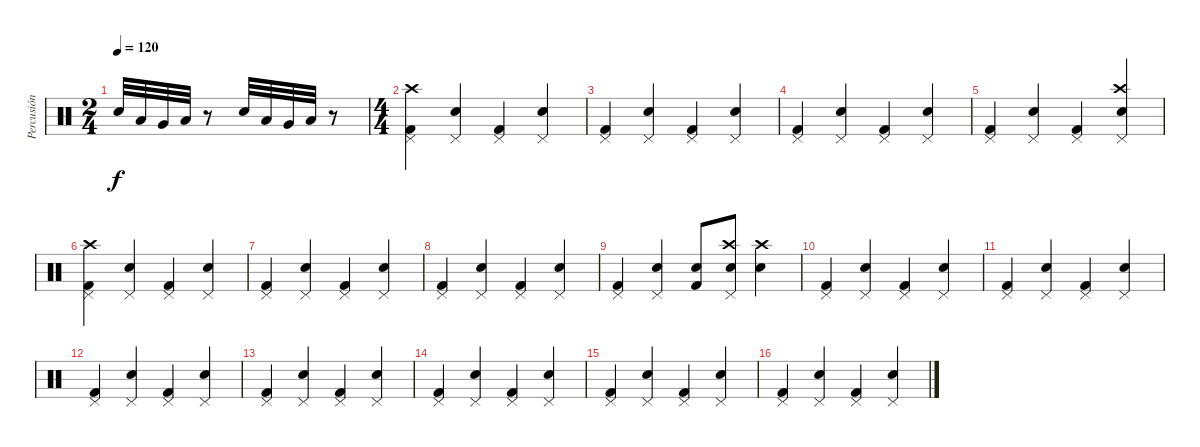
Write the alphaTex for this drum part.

\track ("Percusión" "Percusión") {instrument percussion}
\staff {score}
\articulation defaults
\ts (2 4)
\tempo 120
\clef neutral
\ks c "Electric Snare (hit)".32{dy f} "Low Tom (hit)".32 "Very Low Tom (hit)".32 "Low Floor Tom (hit)".32
r.8 "Electric Snare (hit)".32 "Low Tom (hit)".32 "Very Low Tom (hit)".32 "Low Floor Tom (hit)".32 r.8 |
\ts (4 4)
("Crash high (hit)" "Pedal Hi-Hat (hit)" "Kick (hit) 2").4 ("Pedal Hi-Hat (hit)" "Electric Snare (hit)").4 ("Pedal Hi-Hat (hit)" "Kick (hit) 2").4 ("Pedal Hi-Hat (hit)" "Electric Snare (hit)").4 |
("Pedal Hi-Hat (hit)" "Kick (hit) 2").4 ("Pedal Hi-Hat (hit)" "Electric Snare (hit)").4 ("Pedal Hi-Hat (hit)" "Kick (hit) 2").4 ("Pedal Hi-Hat (hit)" "Electric Snare (hit)").4 |
("Pedal Hi-Hat (hit)" "Kick (hit) 2").4 ("Pedal Hi-Hat (hit)" "Electric Snare (hit)").4 ("Pedal Hi-Hat (hit)" "Kick (hit) 2").4 ("Pedal Hi-Hat (hit)" "Electric Snare (hit)").4 |
("Pedal Hi-Hat (hit)" "Kick (hit) 2").4 ("Pedal Hi-Hat (hit)" "Electric Snare (hit)").4 ("Pedal Hi-Hat (hit)" "Kick (hit) 2").4 ("Crash high (hit)" "Pedal Hi-Hat (hit)" "Electric Snare (hit)").4 |
("Crash high (hit)" "Pedal Hi-Hat (hit)" "Kick (hit) 2").4 ("Pedal Hi-Hat (hit)" "Electric Snare (hit)").4 ("Pedal Hi-Hat (hit)" "Kick (hit) 2").4 ("Pedal Hi-Hat (hit)" "Electric Snare (hit)").4 |
("Pedal Hi-Hat (hit)" "Kick (hit) 2").4 ("Pedal Hi-Hat (hit)" "Electric Snare (hit)").4 ("Pedal Hi-Hat (hit)" "Kick (hit) 2").4 ("Pedal Hi-Hat (hit)" "Electric Snare (hit)").4 |
("Pedal Hi-Hat (hit)" "Kick (hit) 2").4 ("Pedal Hi-Hat (hit)" "Electric Snare (hit)").4 ("Pedal Hi-Hat (hit)" "Kick (hit) 2").4 ("Pedal Hi-Hat (hit)" "Electric Snare (hit)").4 |
("Pedal Hi-Hat (hit)" "Kick (hit) 2").4 ("Pedal Hi-Hat (hit)" "Electric Snare (hit)").4 ("Electric Snare (hit)" "Kick (hit) 2").8 ("Crash high (hit)" "Pedal Hi-Hat (hit)" "Electric Snare (hit)").8 ("Crash high (hit)" "Electric Snare (hit)").4 |
("Pedal Hi-Hat (hit)" "Kick (hit) 2").4 ("Pedal Hi-Hat (hit)" "Electric Snare (hit)").4 ("Pedal Hi-Hat (hit)" "Kick (hit) 2").4 ("Pedal Hi-Hat (hit)" "Electric Snare (hit)").4 |
("Pedal Hi-Hat (hit)" "Kick (hit) 2").4 ("Pedal Hi-Hat (hit)" "Electric Snare (hit)").4 ("Pedal Hi-Hat (hit)" "Kick (hit) 2").4 ("Pedal Hi-Hat (hit)" "Electric Snare (hit)").4 |
("Pedal Hi-Hat (hit)" "Kick (hit) 2").4 ("Pedal Hi-Hat (hit)" "Electric Snare (hit)").4 ("Pedal Hi-Hat (hit)" "Kick (hit) 2").4 ("Pedal Hi-Hat (hit)" "Electric Snare (hit)").4 |
("Pedal Hi-Hat (hit)" "Kick (hit) 2").4 ("Pedal Hi-Hat (hit)" "Electric Snare (hit)").4 ("Pedal Hi-Hat (hit)" "Kick (hit) 2").4 ("Pedal Hi-Hat (hit)" "Electric Snare (hit)").4 |
("Pedal Hi-Hat (hit)" "Kick (hit) 2").4 ("Pedal Hi-Hat (hit)" "Electric Snare (hit)").4 ("Pedal Hi-Hat (hit)" "Kick (hit) 2").4 ("Pedal Hi-Hat (hit)" "Electric Snare (hit)").4 |
("Pedal Hi-Hat (hit)" "Kick (hit) 2").4 ("Pedal Hi-Hat (hit)" "Electric Snare (hit)").4 ("Pedal Hi-Hat (hit)" "Kick (hit) 2").4 ("Pedal Hi-Hat (hit)" "Electric Snare (hit)").4 |
("Pedal Hi-Hat (hit)" "Kick (hit) 2").4 ("Pedal Hi-Hat (hit)" "Electric Snare (hit)").4 ("Pedal Hi-Hat (hit)" "Kick (hit) 2").4 ("Pedal Hi-Hat (hit)" "Electric Snare (hit)").4
